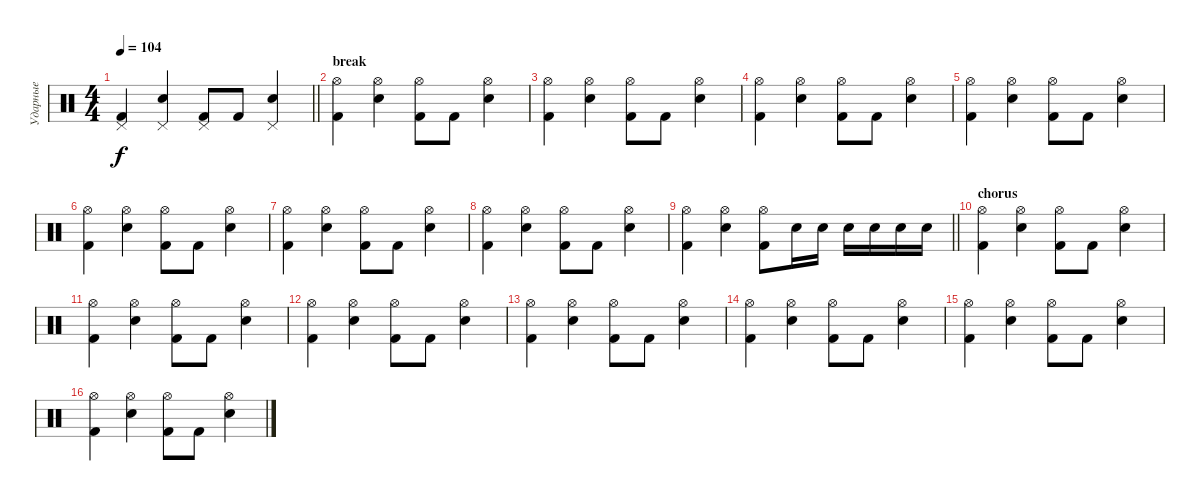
\track ("Ударные" "Ударные") {instrument percussion}
\staff {score}
\articulation defaults
\ts (4 4)
\tempo 104
\clef neutral
\barLineRight lightlight
\ks c
("Pedal Hi-Hat (hit)" "Kick (hit) 2").4{dy f} ("Pedal Hi-Hat (hit)" "Electric Snare (hit)").4 ("Pedal Hi-Hat (hit)" "Kick (hit) 2").8 "Kick (hit) 2".8 ("Pedal Hi-Hat (hit)" "Electric Snare (hit)").4 |
\section ("" "break")
("Hi-Hat (open)" "Kick (hit) 2").4 ("Hi-Hat (open)" "Electric Snare (hit)").4 ("Hi-Hat (open)" "Kick (hit) 2").8 "Kick (hit) 2".8 ("Hi-Hat (open)" "Electric Snare (hit)").4 |
("Hi-Hat (open)" "Kick (hit) 2").4 ("Hi-Hat (open)" "Electric Snare (hit)").4 ("Hi-Hat (open)" "Kick (hit) 2").8 "Kick (hit) 2".8 ("Hi-Hat (open)" "Electric Snare (hit)").4 |
("Hi-Hat (open)" "Kick (hit) 2").4 ("Hi-Hat (open)" "Electric Snare (hit)").4 ("Hi-Hat (open)" "Kick (hit) 2").8 "Kick (hit) 2".8 ("Hi-Hat (open)" "Electric Snare (hit)").4 |
("Hi-Hat (open)" "Kick (hit) 2").4 ("Hi-Hat (open)" "Electric Snare (hit)").4 ("Hi-Hat (open)" "Kick (hit) 2").8 "Kick (hit) 2".8 ("Hi-Hat (open)" "Electric Snare (hit)").4 |
("Hi-Hat (open)" "Kick (hit) 2").4 ("Hi-Hat (open)" "Electric Snare (hit)").4 ("Hi-Hat (open)" "Kick (hit) 2").8 "Kick (hit) 2".8 ("Hi-Hat (open)" "Electric Snare (hit)").4 |
("Hi-Hat (open)" "Kick (hit) 2").4 ("Hi-Hat (open)" "Electric Snare (hit)").4 ("Hi-Hat (open)" "Kick (hit) 2").8 "Kick (hit) 2".8 ("Hi-Hat (open)" "Electric Snare (hit)").4 |
("Hi-Hat (open)" "Kick (hit) 2").4 ("Hi-Hat (open)" "Electric Snare (hit)").4 ("Hi-Hat (open)" "Kick (hit) 2").8 "Kick (hit) 2".8 ("Hi-Hat (open)" "Electric Snare (hit)").4 |
\barLineRight lightlight
("Hi-Hat (open)" "Kick (hit) 2").4 ("Hi-Hat (open)" "Electric Snare (hit)").4 ("Hi-Hat (open)" "Kick (hit) 2").8 "Electric Snare (hit)".16 "Electric Snare (hit)".16 "Electric Snare (hit)".16 "Electric Snare (hit)".16 "Electric Snare (hit)".16 "Electric Snare (hit)".16 |
\section ("" "chorus")
("Hi-Hat (open)" "Kick (hit) 2").4 ("Hi-Hat (open)" "Electric Snare (hit)").4 ("Hi-Hat (open)" "Kick (hit) 2").8 "Kick (hit) 2".8 ("Hi-Hat (open)" "Electric Snare (hit)").4 |
("Hi-Hat (open)" "Kick (hit) 2").4 ("Hi-Hat (open)" "Electric Snare (hit)").4 ("Hi-Hat (open)" "Kick (hit) 2").8 "Kick (hit) 2".8 ("Hi-Hat (open)" "Electric Snare (hit)").4 |
("Hi-Hat (open)" "Kick (hit) 2").4 ("Hi-Hat (open)" "Electric Snare (hit)").4 ("Hi-Hat (open)" "Kick (hit) 2").8 "Kick (hit) 2".8 ("Hi-Hat (open)" "Electric Snare (hit)").4 |
("Hi-Hat (open)" "Kick (hit) 2").4 ("Hi-Hat (open)" "Electric Snare (hit)").4 ("Hi-Hat (open)" "Kick (hit) 2").8 "Kick (hit) 2".8 ("Hi-Hat (open)" "Electric Snare (hit)").4 |
("Hi-Hat (open)" "Kick (hit) 2").4 ("Hi-Hat (open)" "Electric Snare (hit)").4 ("Hi-Hat (open)" "Kick (hit) 2").8 "Kick (hit) 2".8 ("Hi-Hat (open)" "Electric Snare (hit)").4 |
("Hi-Hat (open)" "Kick (hit) 2").4 ("Hi-Hat (open)" "Electric Snare (hit)").4 ("Hi-Hat (open)" "Kick (hit) 2").8 "Kick (hit) 2".8 ("Hi-Hat (open)" "Electric Snare (hit)").4 |
("Hi-Hat (open)" "Kick (hit) 2").4 ("Hi-Hat (open)" "Electric Snare (hit)").4 ("Hi-Hat (open)" "Kick (hit) 2").8 "Kick (hit) 2".8 ("Hi-Hat (open)" "Electric Snare (hit)").4
